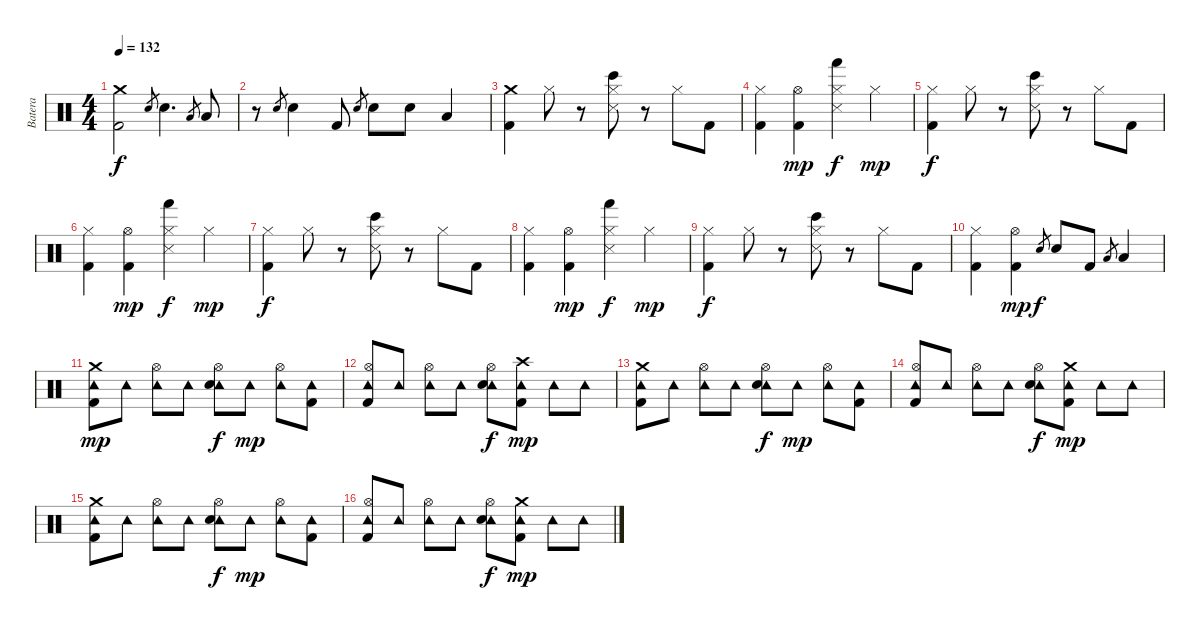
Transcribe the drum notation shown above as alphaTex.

\track ("Batera" "Batera") {instrument percussion}
\staff {score}
\articulation defaults
\ts (4 4)
\tempo 132
\clef neutral
\ks c
("Crash medium (hit)" "Kick (hit) 2").2{dy f} "Electric Snare (hit)".8{gr} "Electric Snare (hit)".4{d} "Low Tom (hit)".8{gr} "Low Tom (hit)".8 |
r.8 "Electric Snare (hit)".8{gr} "Electric Snare (hit)".4 "Kick (hit) 2".8 "Electric Snare (hit)".8{gr} "Electric Snare (hit)".8 "Electric Snare (hit)".8 "Low Tom (hit)".4 |
("Crash medium (hit)" "Kick (hit) 2").4 "Hi-Hat (closed)".8 r.8 ("Hi-Hat (closed)" "Bongo High (hit)" "Snare (side stick) 3").8 r.8 "Hi-Hat (closed)".8 "Kick (hit) 2".8 |
("Hi-Hat (closed)" "Kick (hit) 2").4 ("Hi-Hat (open)" "Kick (hit) 2").4{dy mp} ("Hi-Hat (closed)" "Hand (hit)" "Snare (side stick) 3").4{dy f} "Hi-Hat (closed)".4{dy mp} |
("Hi-Hat (closed)" "Kick (hit) 2").4{dy f} "Hi-Hat (closed)".8 r.8 ("Hi-Hat (closed)" "Bongo High (hit)" "Snare (side stick) 3").8 r.8 "Hi-Hat (closed)".8 "Kick (hit) 2".8 |
("Hi-Hat (closed)" "Kick (hit) 2").4 ("Hi-Hat (open)" "Kick (hit) 2").4{dy mp} ("Hi-Hat (closed)" "Hand (hit)" "Snare (side stick) 3").4{dy f} "Hi-Hat (closed)".4{dy mp} |
("Hi-Hat (closed)" "Kick (hit) 2").4{dy f} "Hi-Hat (closed)".8 r.8 ("Hi-Hat (closed)" "Bongo High (hit)" "Snare (side stick) 3").8 r.8 "Hi-Hat (closed)".8 "Kick (hit) 2".8 |
("Hi-Hat (closed)" "Kick (hit) 2").4 ("Hi-Hat (open)" "Kick (hit) 2").4{dy mp} ("Hi-Hat (closed)" "Hand (hit)" "Snare (side stick) 3").4{dy f} "Hi-Hat (closed)".4{dy mp} |
("Hi-Hat (closed)" "Kick (hit) 2").4{dy f} "Hi-Hat (closed)".8 r.8 ("Hi-Hat (closed)" "Bongo High (hit)" "Snare (side stick) 3").8 r.8 "Hi-Hat (closed)".8 "Kick (hit) 2".8 |
("Hi-Hat (closed)" "Kick (hit) 2").4 ("Hi-Hat (open)" "Kick (hit) 2").4{dy mp} "Electric Snare (hit)".8{gr dy f} "Electric Snare (hit)".8 "Kick (hit) 2".8 "Low Tom (hit)".8{gr} "Low Tom (hit)".4 |
("Crash medium (hit)" "Tambourine (hit)" "Kick (hit) 2").8{dy mp} "Tambourine (hit)".8 ("Hi-Hat (open)" "Tambourine (hit)").8 "Tambourine (hit)".8 ("Hi-Hat (open)" "Tambourine (hit)" "Electric Snare (hit)").8{dy f} "Tambourine (hit)".8{dy mp} ("Hi-Hat (open)" "Tambourine (hit)").8 ("Tambourine (hit)" "Kick (hit) 2").8 |
("Hi-Hat (open)" "Tambourine (hit)" "Kick (hit) 2").8 "Tambourine (hit)".8 ("Hi-Hat (open)" "Tambourine (hit)").8 "Tambourine (hit)".8 ("Hi-Hat (open)" "Tambourine (hit)" "Electric Snare (hit)").8{dy f} ("Crash high (hit)" "Tambourine (hit)" "Kick (hit) 2").8{dy mp} "Tambourine (hit)".8 "Tambourine (hit)".8 |
("Crash medium (hit)" "Tambourine (hit)" "Kick (hit) 2").8 "Tambourine (hit)".8 ("Hi-Hat (open)" "Tambourine (hit)").8 "Tambourine (hit)".8 ("Hi-Hat (open)" "Tambourine (hit)" "Electric Snare (hit)").8{dy f} "Tambourine (hit)".8{dy mp} ("Hi-Hat (open)" "Tambourine (hit)").8 ("Tambourine (hit)" "Kick (hit) 2").8 |
("Hi-Hat (open)" "Tambourine (hit)" "Kick (hit) 2").8 "Tambourine (hit)".8 ("Hi-Hat (open)" "Tambourine (hit)").8 "Tambourine (hit)".8 ("Hi-Hat (open)" "Tambourine (hit)" "Electric Snare (hit)").8{dy f} ("Crash medium (hit)" "Tambourine (hit)" "Kick (hit) 2").8{dy mp} "Tambourine (hit)".8 "Tambourine (hit)".8 |
("Crash medium (hit)" "Tambourine (hit)" "Kick (hit) 2").8 "Tambourine (hit)".8 ("Hi-Hat (open)" "Tambourine (hit)").8 "Tambourine (hit)".8 ("Hi-Hat (open)" "Tambourine (hit)" "Electric Snare (hit)").8{dy f} "Tambourine (hit)".8{dy mp} ("Hi-Hat (open)" "Tambourine (hit)").8 ("Tambourine (hit)" "Kick (hit) 2").8 |
("Hi-Hat (open)" "Tambourine (hit)" "Kick (hit) 2").8 "Tambourine (hit)".8 ("Hi-Hat (open)" "Tambourine (hit)").8 "Tambourine (hit)".8 ("Hi-Hat (open)" "Tambourine (hit)" "Electric Snare (hit)").8{dy f} ("Crash medium (hit)" "Tambourine (hit)" "Kick (hit) 2").8{dy mp} "Tambourine (hit)".8 "Tambourine (hit)".8
